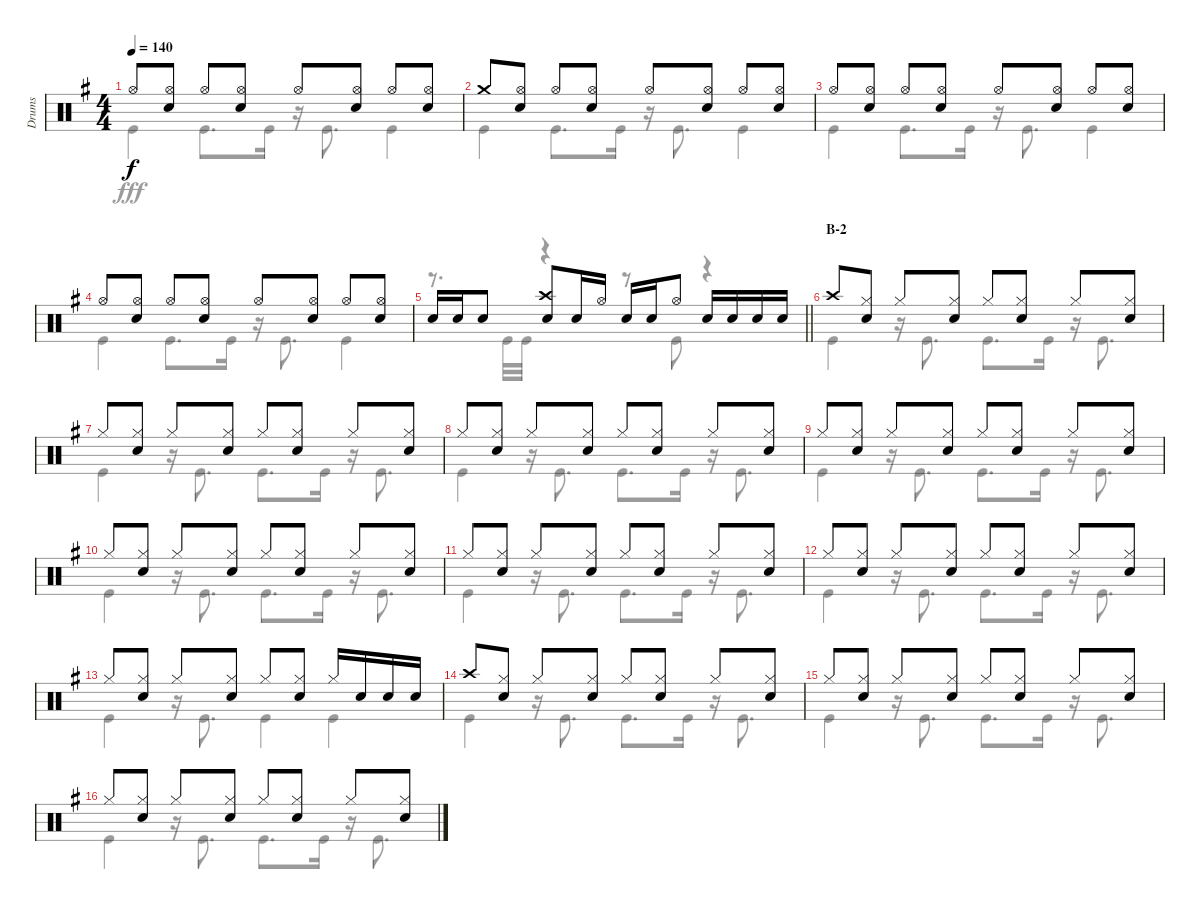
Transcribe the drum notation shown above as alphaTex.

\track ("Drums" "Drums") {instrument percussion}
\staff {score}
\articulation defaults
\voice
\ts (4 4)
\tempo 140
\clef neutral
\ks g "Hi-Hat (open)".8{dy f}
("Hi-Hat (open)" "Snare (hit) 2").8 "Hi-Hat (open)".8 ("Hi-Hat (open)" "Snare (hit) 2").8 "Hi-Hat (open)".8 ("Hi-Hat (open)" "Snare (hit) 2").8 "Hi-Hat (open)".8 ("Hi-Hat (open)" "Snare (hit) 2").8 |
"Crash medium (hit)".8 ("Hi-Hat (open)" "Snare (hit) 2").8 "Hi-Hat (open)".8 ("Hi-Hat (open)" "Snare (hit) 2").8 "Hi-Hat (open)".8 ("Hi-Hat (open)" "Snare (hit) 2").8 "Hi-Hat (open)".8 ("Hi-Hat (open)" "Snare (hit) 2").8 |
"Hi-Hat (open)".8 ("Hi-Hat (open)" "Snare (hit) 2").8 "Hi-Hat (open)".8 ("Hi-Hat (open)" "Snare (hit) 2").8 "Hi-Hat (open)".8 ("Hi-Hat (open)" "Snare (hit) 2").8 "Hi-Hat (open)".8 ("Hi-Hat (open)" "Snare (hit) 2").8 |
"Hi-Hat (open)".8 ("Hi-Hat (open)" "Snare (hit) 2").8 "Hi-Hat (open)".8 ("Hi-Hat (open)" "Snare (hit) 2").8 "Hi-Hat (open)".8 ("Hi-Hat (open)" "Snare (hit) 2").8 "Hi-Hat (open)".8 ("Hi-Hat (open)" "Snare (hit) 2").8 |
\barLineRight lightlight "Snare (hit) 2".16 "Snare (hit) 2".16 "Snare (hit) 2".8
("Crash high (hit)" "Snare (hit) 2").8 "Snare (hit) 2".16 "Hi-Hat (open)".16 "Snare (hit) 2".16 "Snare (hit) 2".16 "Hi-Hat (open)".8 "Snare (hit) 2".16 "Snare (hit) 2".16 "Snare (hit) 2".16 "Snare (hit) 2".16 |
\section ("" "B-2")
"Crash high (hit)".8 ("Hi-Hat (closed)" "Snare (hit) 2").8 "Hi-Hat (closed)".8 ("Hi-Hat (closed)" "Snare (hit) 2").8 "Hi-Hat (closed)".8 ("Hi-Hat (closed)" "Snare (hit) 2").8 "Hi-Hat (closed)".8 ("Hi-Hat (closed)" "Snare (hit) 2").8 |
"Hi-Hat (closed)".8 ("Hi-Hat (closed)" "Snare (hit) 2").8 "Hi-Hat (closed)".8 ("Hi-Hat (closed)" "Snare (hit) 2").8 "Hi-Hat (closed)".8 ("Hi-Hat (closed)" "Snare (hit) 2").8 "Hi-Hat (closed)".8 ("Hi-Hat (closed)" "Snare (hit) 2").8 |
"Hi-Hat (closed)".8 ("Hi-Hat (closed)" "Snare (hit) 2").8 "Hi-Hat (closed)".8 ("Hi-Hat (closed)" "Snare (hit) 2").8 "Hi-Hat (closed)".8 ("Hi-Hat (closed)" "Snare (hit) 2").8 "Hi-Hat (closed)".8 ("Hi-Hat (closed)" "Snare (hit) 2").8 |
"Hi-Hat (closed)".8 ("Hi-Hat (closed)" "Snare (hit) 2").8 "Hi-Hat (closed)".8 ("Hi-Hat (closed)" "Snare (hit) 2").8 "Hi-Hat (closed)".8 ("Hi-Hat (closed)" "Snare (hit) 2").8 "Hi-Hat (closed)".8 ("Hi-Hat (closed)" "Snare (hit) 2").8 |
"Hi-Hat (closed)".8 ("Hi-Hat (closed)" "Snare (hit) 2").8 "Hi-Hat (closed)".8 ("Hi-Hat (closed)" "Snare (hit) 2").8 "Hi-Hat (closed)".8 ("Hi-Hat (closed)" "Snare (hit) 2").8 "Hi-Hat (closed)".8 ("Hi-Hat (closed)" "Snare (hit) 2").8 |
"Hi-Hat (closed)".8 ("Hi-Hat (closed)" "Snare (hit) 2").8 "Hi-Hat (closed)".8 ("Hi-Hat (closed)" "Snare (hit) 2").8 "Hi-Hat (closed)".8 ("Hi-Hat (closed)" "Snare (hit) 2").8 "Hi-Hat (closed)".8 ("Hi-Hat (closed)" "Snare (hit) 2").8 |
"Hi-Hat (closed)".8 ("Hi-Hat (closed)" "Snare (hit) 2").8 "Hi-Hat (closed)".8 ("Hi-Hat (closed)" "Snare (hit) 2").8 "Hi-Hat (closed)".8 ("Hi-Hat (closed)" "Snare (hit) 2").8 "Hi-Hat (closed)".8 ("Hi-Hat (closed)" "Snare (hit) 2").8 |
"Hi-Hat (closed)".8 ("Hi-Hat (closed)" "Snare (hit) 2").8 "Hi-Hat (closed)".8 ("Hi-Hat (closed)" "Snare (hit) 2").8 "Hi-Hat (closed)".8 ("Hi-Hat (closed)" "Snare (hit) 2").8 "Hi-Hat (closed)".16 "Snare (hit) 2".16 "Snare (hit) 2".16 "Snare (hit) 2".16 |
"Crash high (hit)".8 ("Hi-Hat (closed)" "Snare (hit) 2").8 "Hi-Hat (closed)".8 ("Hi-Hat (closed)" "Snare (hit) 2").8 "Hi-Hat (closed)".8 ("Hi-Hat (closed)" "Snare (hit) 2").8 "Hi-Hat (closed)".8 ("Hi-Hat (closed)" "Snare (hit) 2").8 |
"Hi-Hat (closed)".8 ("Hi-Hat (closed)" "Snare (hit) 2").8 "Hi-Hat (closed)".8 ("Hi-Hat (closed)" "Snare (hit) 2").8 "Hi-Hat (closed)".8 ("Hi-Hat (closed)" "Snare (hit) 2").8 "Hi-Hat (closed)".8 ("Hi-Hat (closed)" "Snare (hit) 2").8 |
"Hi-Hat (closed)".8 ("Hi-Hat (closed)" "Snare (hit) 2").8 "Hi-Hat (closed)".8 ("Hi-Hat (closed)" "Snare (hit) 2").8 "Hi-Hat (closed)".8 ("Hi-Hat (closed)" "Snare (hit) 2").8 "Hi-Hat (closed)".8 ("Hi-Hat (closed)" "Snare (hit) 2").8
\voice
\clef neutral
\ottava regular
\simile none
\ks g "Kick (hit)".4{dy fff} "Kick (hit)".8{d} "Kick (hit)".16
r.16 "Kick (hit)".8{d} "Kick (hit)".4 |
"Kick (hit)".4 "Kick (hit)".8{d} "Kick (hit)".16 r.16 "Kick (hit)".8{d} "Kick (hit)".4 |
"Kick (hit)".4 "Kick (hit)".8{d} "Kick (hit)".16 r.16 "Kick (hit)".8{d} "Kick (hit)".4 |
"Kick (hit)".4 "Kick (hit)".8{d} "Kick (hit)".16 r.16 "Kick (hit)".8{d} "Kick (hit)".4 |
\barLineRight lightlight
r.8{d} "Kick (hit)".32 "Kick (hit)".32 r.4 r.8 "Kick (hit)".8 r.4 |
"Kick (hit)".4 r.16 "Kick (hit)".8{d} "Kick (hit)".8{d} "Kick (hit)".16 r.16 "Kick (hit)".8{d} |
"Kick (hit)".4 r.16 "Kick (hit)".8{d} "Kick (hit)".8{d} "Kick (hit)".16 r.16 "Kick (hit)".8{d} |
"Kick (hit)".4 r.16 "Kick (hit)".8{d} "Kick (hit)".8{d} "Kick (hit)".16 r.16 "Kick (hit)".8{d} |
"Kick (hit)".4 r.16 "Kick (hit)".8{d} "Kick (hit)".8{d} "Kick (hit)".16 r.16 "Kick (hit)".8{d} |
"Kick (hit)".4 r.16 "Kick (hit)".8{d} "Kick (hit)".8{d} "Kick (hit)".16 r.16 "Kick (hit)".8{d} |
"Kick (hit)".4 r.16 "Kick (hit)".8{d} "Kick (hit)".8{d} "Kick (hit)".16 r.16 "Kick (hit)".8{d} |
"Kick (hit)".4 r.16 "Kick (hit)".8{d} "Kick (hit)".8{d} "Kick (hit)".16 r.16 "Kick (hit)".8{d} |
"Kick (hit)".4 r.16 "Kick (hit)".8{d} "Kick (hit)".4 "Kick (hit)".4 |
"Kick (hit)".4 r.16 "Kick (hit)".8{d} "Kick (hit)".8{d} "Kick (hit)".16 r.16 "Kick (hit)".8{d} |
"Kick (hit)".4 r.16 "Kick (hit)".8{d} "Kick (hit)".8{d} "Kick (hit)".16 r.16 "Kick (hit)".8{d} |
"Kick (hit)".4 r.16 "Kick (hit)".8{d} "Kick (hit)".8{d} "Kick (hit)".16 r.16 "Kick (hit)".8{d}
